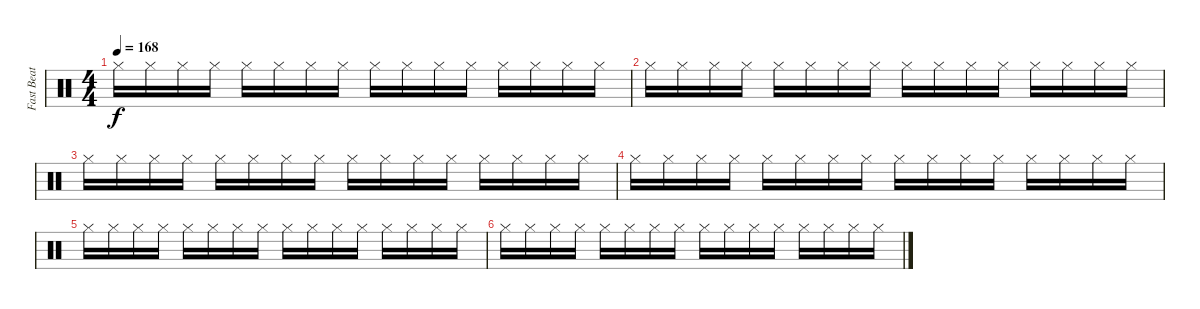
\track ("Fast Beat" "Fast Beat") {instrument percussion}
\staff {score}
\articulation defaults
\ts (4 4)
\tempo 168
\clef neutral
\ks c "Hi-Hat (closed)".16{dy f} "Hi-Hat (closed)".16 "Hi-Hat (closed)".16 "Hi-Hat (closed)".16 "Hi-Hat (closed)".16 "Hi-Hat (closed)".16 "Hi-Hat (closed)".16 "Hi-Hat (closed)".16 "Hi-Hat (closed)".16 "Hi-Hat (closed)".16 "Hi-Hat (closed)".16 "Hi-Hat (closed)".16 "Hi-Hat (closed)".16 "Hi-Hat (closed)".16 "Hi-Hat (closed)".16 "Hi-Hat (closed)".16
|
"Hi-Hat (closed)".16 "Hi-Hat (closed)".16 "Hi-Hat (closed)".16 "Hi-Hat (closed)".16 "Hi-Hat (closed)".16 "Hi-Hat (closed)".16 "Hi-Hat (closed)".16 "Hi-Hat (closed)".16 "Hi-Hat (closed)".16 "Hi-Hat (closed)".16 "Hi-Hat (closed)".16 "Hi-Hat (closed)".16 "Hi-Hat (closed)".16 "Hi-Hat (closed)".16 "Hi-Hat (closed)".16 "Hi-Hat (closed)".16 |
"Hi-Hat (closed)".16 "Hi-Hat (closed)".16 "Hi-Hat (closed)".16 "Hi-Hat (closed)".16 "Hi-Hat (closed)".16 "Hi-Hat (closed)".16 "Hi-Hat (closed)".16 "Hi-Hat (closed)".16 "Hi-Hat (closed)".16 "Hi-Hat (closed)".16 "Hi-Hat (closed)".16 "Hi-Hat (closed)".16 "Hi-Hat (closed)".16 "Hi-Hat (closed)".16 "Hi-Hat (closed)".16 "Hi-Hat (closed)".16 |
"Hi-Hat (closed)".16 "Hi-Hat (closed)".16 "Hi-Hat (closed)".16 "Hi-Hat (closed)".16 "Hi-Hat (closed)".16 "Hi-Hat (closed)".16 "Hi-Hat (closed)".16 "Hi-Hat (closed)".16 "Hi-Hat (closed)".16 "Hi-Hat (closed)".16 "Hi-Hat (closed)".16 "Hi-Hat (closed)".16 "Hi-Hat (closed)".16 "Hi-Hat (closed)".16 "Hi-Hat (closed)".16 "Hi-Hat (closed)".16 |
"Hi-Hat (closed)".16 "Hi-Hat (closed)".16 "Hi-Hat (closed)".16 "Hi-Hat (closed)".16 "Hi-Hat (closed)".16 "Hi-Hat (closed)".16 "Hi-Hat (closed)".16 "Hi-Hat (closed)".16 "Hi-Hat (closed)".16 "Hi-Hat (closed)".16 "Hi-Hat (closed)".16 "Hi-Hat (closed)".16 "Hi-Hat (closed)".16 "Hi-Hat (closed)".16 "Hi-Hat (closed)".16 "Hi-Hat (closed)".16 |
"Hi-Hat (closed)".16 "Hi-Hat (closed)".16 "Hi-Hat (closed)".16 "Hi-Hat (closed)".16 "Hi-Hat (closed)".16 "Hi-Hat (closed)".16 "Hi-Hat (closed)".16 "Hi-Hat (closed)".16 "Hi-Hat (closed)".16 "Hi-Hat (closed)".16 "Hi-Hat (closed)".16 "Hi-Hat (closed)".16 "Hi-Hat (closed)".16 "Hi-Hat (closed)".16 "Hi-Hat (closed)".16 "Hi-Hat (closed)".16
